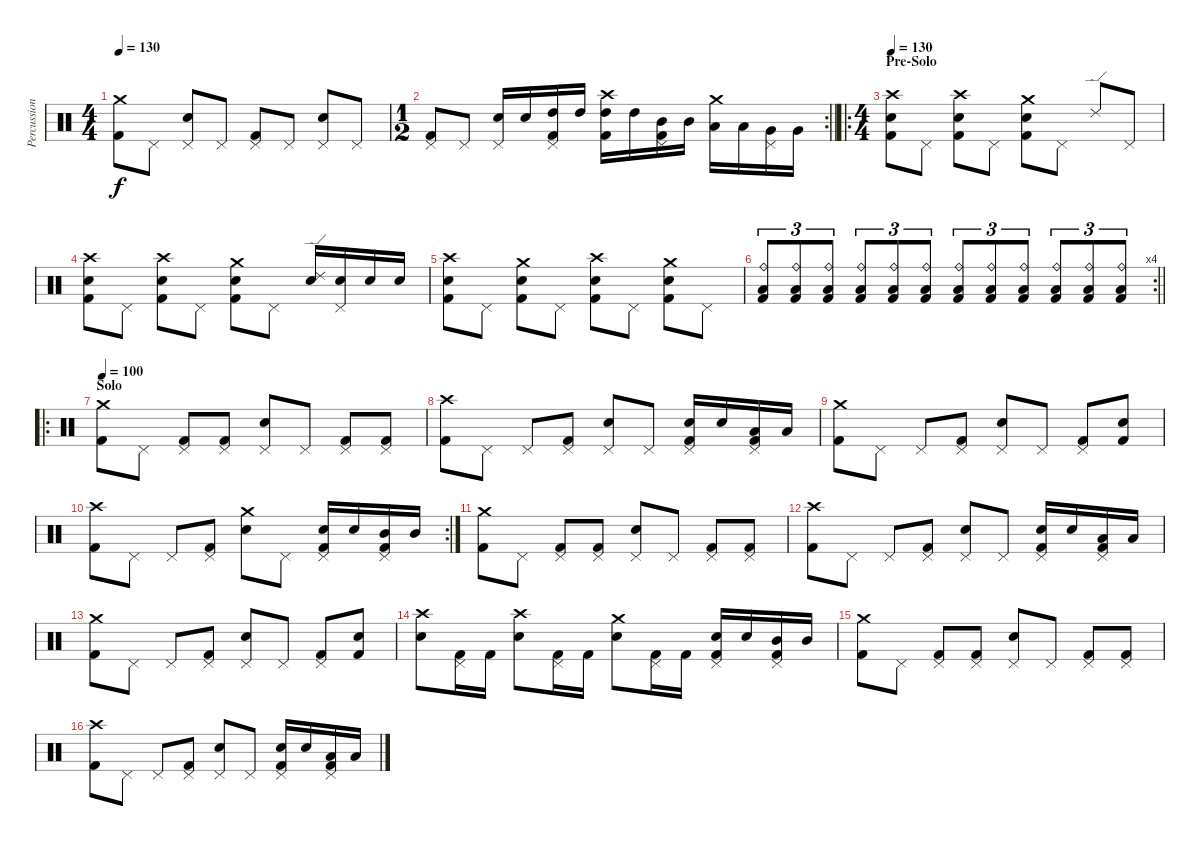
\track ("Percussion" "Percussion") {instrument percussion}
\staff {score}
\articulation defaults
\ts (4 4)
\tempo 130
\clef neutral
\ks c
("Crash medium (hit)" "Kick (hit) 2").8{dy f} "Pedal Hi-Hat (hit)".8 ("Pedal Hi-Hat (hit)" "Snare (hit) 2").8 "Pedal Hi-Hat (hit)".8 ("Pedal Hi-Hat (hit)" "Kick (hit) 2").8 "Pedal Hi-Hat (hit)".8 ("Pedal Hi-Hat (hit)" "Snare (hit) 2").8 "Pedal Hi-Hat (hit)".8 |
\rc 2
\ts (1 2)
\barLineRight lightlight
("Pedal Hi-Hat (hit)" "Kick (hit) 2").8 "Pedal Hi-Hat (hit)".8 ("Pedal Hi-Hat (hit)" "Snare (hit) 2").16 "Snare (hit) 2".16 ("Pedal Hi-Hat (hit)" "High Tom (hit)" "Kick (hit) 2").16 "High Tom (hit)".16 ("Crash high (hit)" "High Tom (hit)" "Kick (hit) 2").16 "High Tom (hit)".16 ("Pedal Hi-Hat (hit)" "Mid Tom (hit)" "Kick (hit) 2").16 "Mid Tom (hit)".16 ("Crash medium (hit)" "Low Tom (hit)").16 "Low Tom (hit)".16 ("Pedal Hi-Hat (hit)" "Very Low Tom (hit)").16 "Very Low Tom (hit)".16 |
\ro
\ts (4 4)
\section ("" "Pre-Solo")
\tempo 130
("Crash high (hit)" "Snare (hit) 2" "Kick (hit) 2").8 "Pedal Hi-Hat (hit)".8 ("Crash high (hit)" "Snare (hit) 2" "Kick (hit) 2").8 "Pedal Hi-Hat (hit)".8 ("Crash medium (hit)" "Snare (hit) 2" "Kick (hit) 2").8 "Pedal Hi-Hat (hit)".8 "Ride (edge) 2".8 "Pedal Hi-Hat (hit)".8 |
("Crash high (hit)" "Snare (hit) 2" "Kick (hit) 2").8 "Pedal Hi-Hat (hit)".8 ("Crash high (hit)" "Snare (hit) 2" "Kick (hit) 2").8 "Pedal Hi-Hat (hit)".8 ("Crash medium (hit)" "Snare (hit) 2" "Kick (hit) 2").8 "Pedal Hi-Hat (hit)".8 ("Ride (edge) 2" "Snare (hit) 2").16 ("Pedal Hi-Hat (hit)" "Snare (hit) 2").16 "Snare (hit) 2".16 "Snare (hit) 2".16 |
("Crash high (hit)" "Snare (hit) 2" "Kick (hit) 2").8 "Pedal Hi-Hat (hit)".8 ("Crash medium (hit)" "Snare (hit) 2" "Kick (hit) 2").8 "Pedal Hi-Hat (hit)".8 ("Crash high (hit)" "Snare (hit) 2" "Kick (hit) 2").8 "Pedal Hi-Hat (hit)".8 ("Crash medium (hit)" "Snare (hit) 2" "Kick (hit) 2").8 "Pedal Hi-Hat (hit)".8 |
\rc 4
\barLineRight lightlight
("Ride (bell)" "Low Floor Tom (hit)" "Kick (hit) 2").8{tu (3 2)} ("Ride (bell)" "Low Floor Tom (hit)" "Kick (hit) 2").8{tu (3 2)} ("Ride (bell)" "Low Floor Tom (hit)" "Kick (hit) 2").8{tu (3 2)} ("Ride (bell)" "Low Floor Tom (hit)" "Kick (hit) 2").8{tu (3 2)} ("Ride (bell)" "Low Floor Tom (hit)" "Kick (hit) 2").8{tu (3 2)} ("Ride (bell)" "Low Floor Tom (hit)" "Kick (hit) 2").8{tu (3 2)} ("Ride (bell)" "Low Floor Tom (hit)" "Kick (hit) 2").8{tu (3 2)} ("Ride (bell)" "Low Floor Tom (hit)" "Kick (hit) 2").8{tu (3 2)} ("Ride (bell)" "Low Floor Tom (hit)" "Kick (hit) 2").8{tu (3 2)} ("Ride (bell)" "Low Floor Tom (hit)" "Kick (hit) 2").8{tu (3 2)} ("Ride (bell)" "Low Floor Tom (hit)" "Kick (hit) 2").8{tu (3 2)} ("Ride (bell)" "Low Floor Tom (hit)" "Kick (hit) 2").8{tu (3 2)} |
\ro
\section ("" "Solo")
\tempo 100
("Crash medium (hit)" "Kick (hit) 2").8 "Pedal Hi-Hat (hit)".8 ("Pedal Hi-Hat (hit)" "Kick (hit) 2").8 ("Pedal Hi-Hat (hit)" "Kick (hit) 2").8 ("Pedal Hi-Hat (hit)" "Snare (hit) 2").8 "Pedal Hi-Hat (hit)".8 ("Pedal Hi-Hat (hit)" "Kick (hit) 2").8 ("Pedal Hi-Hat (hit)" "Kick (hit) 2").8 |
("Crash high (hit)" "Kick (hit) 2").8 "Pedal Hi-Hat (hit)".8 "Pedal Hi-Hat (hit)".8 ("Pedal Hi-Hat (hit)" "Kick (hit) 2").8 ("Pedal Hi-Hat (hit)" "Snare (hit) 2").8 "Pedal Hi-Hat (hit)".8 ("Pedal Hi-Hat (hit)" "Snare (hit) 2" "Kick (hit) 2").16 "Snare (hit) 2".16 ("Pedal Hi-Hat (hit)" "Low Tom (hit)" "Kick (hit) 2").16 "Low Tom (hit)".16 |
("Crash medium (hit)" "Kick (hit) 2").8 "Pedal Hi-Hat (hit)".8 "Pedal Hi-Hat (hit)".8 ("Pedal Hi-Hat (hit)" "Kick (hit) 2").8 ("Pedal Hi-Hat (hit)" "Snare (hit) 2").8 "Pedal Hi-Hat (hit)".8 ("Pedal Hi-Hat (hit)" "Kick (hit) 2").8 ("Snare (hit)" "Kick (hit) 2").8 |
\rc 2
("Crash high (hit)" "Kick (hit) 2").8 "Pedal Hi-Hat (hit)".8 "Pedal Hi-Hat (hit)".8 ("Pedal Hi-Hat (hit)" "Kick (hit) 2").8 ("Crash medium (hit)" "Snare (hit) 2").8 "Pedal Hi-Hat (hit)".8 ("Pedal Hi-Hat (hit)" "Snare (hit) 2" "Kick (hit) 2").16 "Snare (hit) 2".16 ("Pedal Hi-Hat (hit)" "Mid Tom (hit)" "Kick (hit) 2").16 "Mid Tom (hit)".16 |
("Crash medium (hit)" "Kick (hit) 2").8 "Pedal Hi-Hat (hit)".8 ("Pedal Hi-Hat (hit)" "Kick (hit) 2").8 ("Pedal Hi-Hat (hit)" "Kick (hit) 2").8 ("Pedal Hi-Hat (hit)" "Snare (hit) 2").8 "Pedal Hi-Hat (hit)".8 ("Pedal Hi-Hat (hit)" "Kick (hit) 2").8 ("Pedal Hi-Hat (hit)" "Kick (hit) 2").8 |
("Crash high (hit)" "Kick (hit) 2").8 "Pedal Hi-Hat (hit)".8 "Pedal Hi-Hat (hit)".8 ("Pedal Hi-Hat (hit)" "Kick (hit) 2").8 ("Pedal Hi-Hat (hit)" "Snare (hit) 2").8 "Pedal Hi-Hat (hit)".8 ("Pedal Hi-Hat (hit)" "Snare (hit) 2" "Kick (hit) 2").16 "Snare (hit) 2".16 ("Pedal Hi-Hat (hit)" "Low Tom (hit)" "Kick (hit) 2").16 "Low Tom (hit)".16 |
("Crash medium (hit)" "Kick (hit) 2").8 "Pedal Hi-Hat (hit)".8 "Pedal Hi-Hat (hit)".8 ("Pedal Hi-Hat (hit)" "Kick (hit) 2").8 ("Pedal Hi-Hat (hit)" "Snare (hit) 2").8 "Pedal Hi-Hat (hit)".8 ("Pedal Hi-Hat (hit)" "Kick (hit) 2").8 ("Snare (hit)" "Kick (hit) 2").8 |
("Crash high (hit)" "Snare (hit) 2").8 ("Pedal Hi-Hat (hit)" "Kick (hit) 2").16 "Kick (hit) 2".16 ("Crash high (hit)" "Snare (hit) 2").8 ("Pedal Hi-Hat (hit)" "Kick (hit) 2").16 "Kick (hit) 2".16 ("Crash medium (hit)" "Snare (hit) 2").8 ("Pedal Hi-Hat (hit)" "Kick (hit) 2").16 "Kick (hit) 2".16 ("Pedal Hi-Hat (hit)" "Snare (hit) 2" "Kick (hit) 2").16 "Snare (hit) 2".16 ("Pedal Hi-Hat (hit)" "Mid Tom (hit)" "Kick (hit) 2").16 "Mid Tom (hit)".16 |
("Crash medium (hit)" "Kick (hit) 2").8 "Pedal Hi-Hat (hit)".8 ("Pedal Hi-Hat (hit)" "Kick (hit) 2").8 ("Pedal Hi-Hat (hit)" "Kick (hit) 2").8 ("Pedal Hi-Hat (hit)" "Snare (hit) 2").8 "Pedal Hi-Hat (hit)".8 ("Pedal Hi-Hat (hit)" "Kick (hit) 2").8 ("Pedal Hi-Hat (hit)" "Kick (hit) 2").8 |
("Crash high (hit)" "Kick (hit) 2").8 "Pedal Hi-Hat (hit)".8 "Pedal Hi-Hat (hit)".8 ("Pedal Hi-Hat (hit)" "Kick (hit) 2").8 ("Pedal Hi-Hat (hit)" "Snare (hit) 2").8 "Pedal Hi-Hat (hit)".8 ("Pedal Hi-Hat (hit)" "Snare (hit) 2" "Kick (hit) 2").16 "Snare (hit) 2".16 ("Pedal Hi-Hat (hit)" "Low Tom (hit)" "Kick (hit) 2").16 "Low Tom (hit)".16
